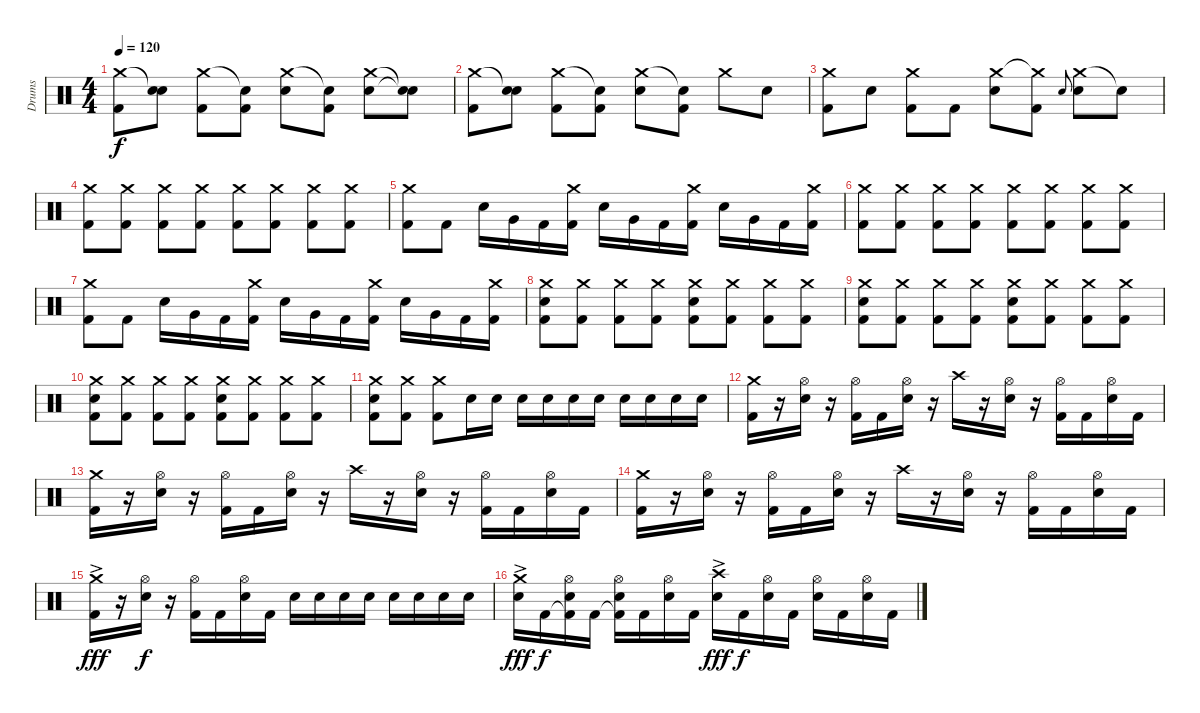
\track ("Drums" "Drums") {instrument percussion}
\staff {score}
\articulation defaults
\ts (4 4)
\tempo 120
\clef neutral
\ks c
("Crash medium (hit)" "Kick (hit) 2").8{dy f} ("Snare (hit)"{t} "Electric Snare (hit)").8 ("Crash medium (hit)" "Kick (hit) 2").8 ("Snare (hit)"{t} "Kick (hit) 2").8 ("Crash medium (hit)" "Electric Snare (hit)").8 ("Snare (hit)"{t} "Kick (hit) 2").8 ("Crash medium (hit)" "Electric Snare (hit)").8 ("Snare (hit)"{t} "Electric Snare (hit)"{t}).8 |
("Crash medium (hit)" "Kick (hit) 2").8 ("Snare (hit)"{t} "Electric Snare (hit)").8 ("Crash medium (hit)" "Kick (hit) 2").8 ("Snare (hit)"{t} "Kick (hit) 2").8 ("Crash medium (hit)" "Electric Snare (hit)").8 ("Snare (hit)"{t} "Kick (hit) 2").8 "Crash medium (hit)".8 "Electric Snare (hit)".8 |
("Crash medium (hit)" "Kick (hit) 2").8 "Electric Snare (hit)".8 ("Crash medium (hit)" "Kick (hit) 2").8 "Kick (hit) 2".8 ("Crash medium (hit)" "Electric Snare (hit)").8 ("Crash medium (hit)"{t} "Kick (hit) 2").8 "Electric Snare (hit)".8{gr onbeat} ("Crash medium (hit)" "Electric Snare (hit)").8 "Snare (hit)"{t}.8 |
("Crash medium (hit)" "Kick (hit) 2").8 ("Crash medium (hit)" "Kick (hit) 2").8 ("Crash medium (hit)" "Kick (hit) 2").8 ("Crash medium (hit)" "Kick (hit) 2").8 ("Crash medium (hit)" "Kick (hit) 2").8 ("Crash medium (hit)" "Kick (hit) 2").8 ("Crash medium (hit)" "Kick (hit) 2").8 ("Crash medium (hit)" "Kick (hit) 2").8 |
("Crash medium (hit)" "Kick (hit) 2").8 "Kick (hit) 2".8 "Electric Snare (hit)".16 "Very Low Tom (hit)".16 "Kick (hit) 2".16 ("Crash medium (hit)" "Kick (hit) 2").16 "Electric Snare (hit)".16 "Very Low Tom (hit)".16 "Kick (hit) 2".16 ("Crash medium (hit)" "Kick (hit) 2").16 "Electric Snare (hit)".16 "Very Low Tom (hit)".16 "Kick (hit) 2".16 ("Crash medium (hit)" "Kick (hit) 2").16 |
("Crash medium (hit)" "Kick (hit) 2").8 ("Crash medium (hit)" "Kick (hit) 2").8 ("Crash medium (hit)" "Kick (hit) 2").8 ("Crash medium (hit)" "Kick (hit) 2").8 ("Crash medium (hit)" "Kick (hit) 2").8 ("Crash medium (hit)" "Kick (hit) 2").8 ("Crash medium (hit)" "Kick (hit) 2").8 ("Crash medium (hit)" "Kick (hit) 2").8 |
("Crash medium (hit)" "Kick (hit) 2").8 "Kick (hit) 2".8 "Electric Snare (hit)".16 "Very Low Tom (hit)".16 "Kick (hit) 2".16 ("Crash medium (hit)" "Kick (hit) 2").16 "Electric Snare (hit)".16 "Very Low Tom (hit)".16 "Kick (hit) 2".16 ("Crash medium (hit)" "Kick (hit) 2").16 "Electric Snare (hit)".16 "Very Low Tom (hit)".16 "Kick (hit) 2".16 ("Crash medium (hit)" "Kick (hit) 2").16 |
("Crash medium (hit)" "Electric Snare (hit)" "Kick (hit) 2").8 ("Crash medium (hit)" "Kick (hit) 2").8 ("Crash medium (hit)" "Kick (hit) 2").8 ("Crash medium (hit)" "Kick (hit) 2").8 ("Crash medium (hit)" "Electric Snare (hit)" "Kick (hit) 2").8 ("Crash medium (hit)" "Kick (hit) 2").8 ("Crash medium (hit)" "Kick (hit) 2").8 ("Crash medium (hit)" "Kick (hit) 2").8 |
("Crash medium (hit)" "Electric Snare (hit)" "Kick (hit) 2").8 ("Crash medium (hit)" "Kick (hit) 2").8 ("Crash medium (hit)" "Kick (hit) 2").8 ("Crash medium (hit)" "Kick (hit) 2").8 ("Crash medium (hit)" "Electric Snare (hit)" "Kick (hit) 2").8 ("Crash medium (hit)" "Kick (hit) 2").8 ("Crash medium (hit)" "Kick (hit) 2").8 ("Crash medium (hit)" "Kick (hit) 2").8 |
("Crash medium (hit)" "Electric Snare (hit)" "Kick (hit) 2").8 ("Crash medium (hit)" "Kick (hit) 2").8 ("Crash medium (hit)" "Kick (hit) 2").8 ("Crash medium (hit)" "Kick (hit) 2").8 ("Crash medium (hit)" "Electric Snare (hit)" "Kick (hit) 2").8 ("Crash medium (hit)" "Kick (hit) 2").8 ("Crash medium (hit)" "Kick (hit) 2").8 ("Crash medium (hit)" "Kick (hit) 2").8 |
("Crash medium (hit)" "Electric Snare (hit)" "Kick (hit) 2").8 ("Crash medium (hit)" "Kick (hit) 2").8 ("Crash medium (hit)" "Kick (hit) 2").8 "Electric Snare (hit)".16 "Electric Snare (hit)".16 "Electric Snare (hit)".16 "Electric Snare (hit)".16 "Electric Snare (hit)".16 "Electric Snare (hit)".16 "Electric Snare (hit)".16 "Electric Snare (hit)".16 "Electric Snare (hit)".16 "Electric Snare (hit)".16 |
("Kick (hit) 2" "Crash medium (hit)").16 r.16 ("Hi-Hat (open)" "Electric Snare (hit)").16 r.16 ("Hi-Hat (open)" "Kick (hit) 2").16 "Kick (hit) 2".16 ("Hi-Hat (open)" "Electric Snare (hit)").16 r.16 "Crash high (hit)".16 r.16 ("Hi-Hat (open)" "Electric Snare (hit)").16 r.16 ("Hi-Hat (open)" "Kick (hit) 2").16 "Kick (hit) 2".16 ("Hi-Hat (open)" "Electric Snare (hit)").16 "Kick (hit) 2".16 |
("Kick (hit) 2" "Crash medium (hit)").16 r.16 ("Hi-Hat (open)" "Electric Snare (hit)").16 r.16 ("Hi-Hat (open)" "Kick (hit) 2").16 "Kick (hit) 2".16 ("Hi-Hat (open)" "Electric Snare (hit)").16 r.16 "Crash high (hit)".16 r.16 ("Hi-Hat (open)" "Electric Snare (hit)").16 r.16 ("Hi-Hat (open)" "Kick (hit) 2").16 "Kick (hit) 2".16 ("Hi-Hat (open)" "Electric Snare (hit)").16 "Kick (hit) 2".16 |
("Kick (hit) 2" "Crash medium (hit)").16 r.16 ("Hi-Hat (open)" "Electric Snare (hit)").16 r.16 ("Hi-Hat (open)" "Kick (hit) 2").16 "Kick (hit) 2".16 ("Hi-Hat (open)" "Electric Snare (hit)").16 r.16 "Crash high (hit)".16 r.16 ("Hi-Hat (open)" "Electric Snare (hit)").16 r.16 ("Hi-Hat (open)" "Kick (hit) 2").16 "Kick (hit) 2".16 ("Hi-Hat (open)" "Electric Snare (hit)").16 "Kick (hit) 2".16 |
("Kick (hit) 2"{ac} "Crash medium (hit)").16{dy fff} r.16 ("Hi-Hat (open)" "Electric Snare (hit)").16{dy f} r.16 ("Hi-Hat (open)" "Kick (hit) 2").16 "Kick (hit) 2".16 ("Hi-Hat (open)" "Electric Snare (hit)").16 "Kick (hit) 2".16 "Electric Snare (hit)".16 "Electric Snare (hit)".16 "Electric Snare (hit)".16 "Electric Snare (hit)".16 "Electric Snare (hit)".16 "Electric Snare (hit)".16 "Electric Snare (hit)".16 "Electric Snare (hit)".16 |
("Electric Snare (hit)"{ac} "Crash medium (hit)").16{dy fff} "Kick (hit) 2".16{dy f} ("Kick (hit) 2"{t} "Hi-Hat (open)" "Electric Snare (hit)").16 "Kick (hit) 2".16 ("Kick (hit) 2"{t} "Hi-Hat (open)" "Electric Snare (hit)").16 "Kick (hit) 2".16 ("Hi-Hat (open)" "Electric Snare (hit)").16 "Kick (hit) 2".16 ("Electric Snare (hit)"{ac} "Crash high (hit)").16{dy fff} "Kick (hit) 2".16{dy f} ("Hi-Hat (open)" "Electric Snare (hit)").16 "Kick (hit) 2".16 ("Hi-Hat (open)" "Electric Snare (hit)").16 "Kick (hit) 2".16 ("Hi-Hat (open)" "Electric Snare (hit)").16 "Kick (hit) 2".16
